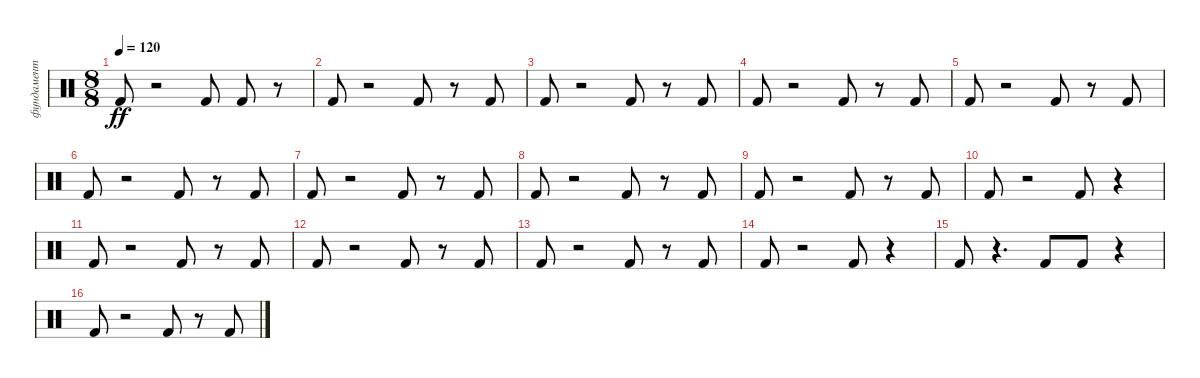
\track ("фундамент" "фундамент") {instrument percussion}
\staff {score}
\articulation defaults
\ts (8 8)
\tempo 120
\clef neutral
\ks c "Kick (hit) 2".8{dy ff}
r.2 "Kick (hit) 2".8 "Kick (hit) 2".8 r.8 |
"Kick (hit) 2".8 r.2 "Kick (hit) 2".8 r.8 "Kick (hit) 2".8 |
"Kick (hit) 2".8 r.2 "Kick (hit) 2".8 r.8 "Kick (hit) 2".8 |
"Kick (hit) 2".8 r.2 "Kick (hit) 2".8 r.8 "Kick (hit) 2".8 |
"Kick (hit) 2".8 r.2 "Kick (hit) 2".8 r.8 "Kick (hit) 2".8 |
"Kick (hit) 2".8 r.2 "Kick (hit) 2".8 r.8 "Kick (hit) 2".8 |
"Kick (hit) 2".8 r.2 "Kick (hit) 2".8 r.8 "Kick (hit) 2".8 |
"Kick (hit) 2".8 r.2 "Kick (hit) 2".8 r.8 "Kick (hit) 2".8 |
"Kick (hit) 2".8 r.2 "Kick (hit) 2".8 r.8 "Kick (hit) 2".8 |
"Kick (hit) 2".8 r.2 "Kick (hit) 2".8 r.4 |
"Kick (hit) 2".8 r.2 "Kick (hit) 2".8 r.8 "Kick (hit) 2".8 |
"Kick (hit) 2".8 r.2 "Kick (hit) 2".8 r.8 "Kick (hit) 2".8 |
"Kick (hit) 2".8 r.2 "Kick (hit) 2".8 r.8 "Kick (hit) 2".8 |
"Kick (hit) 2".8 r.2 "Kick (hit) 2".8 r.4 |
"Kick (hit) 2".8 r.4{d} "Kick (hit) 2".8 "Kick (hit) 2".8 r.4 |
"Kick (hit) 2".8 r.2 "Kick (hit) 2".8 r.8 "Kick (hit) 2".8
